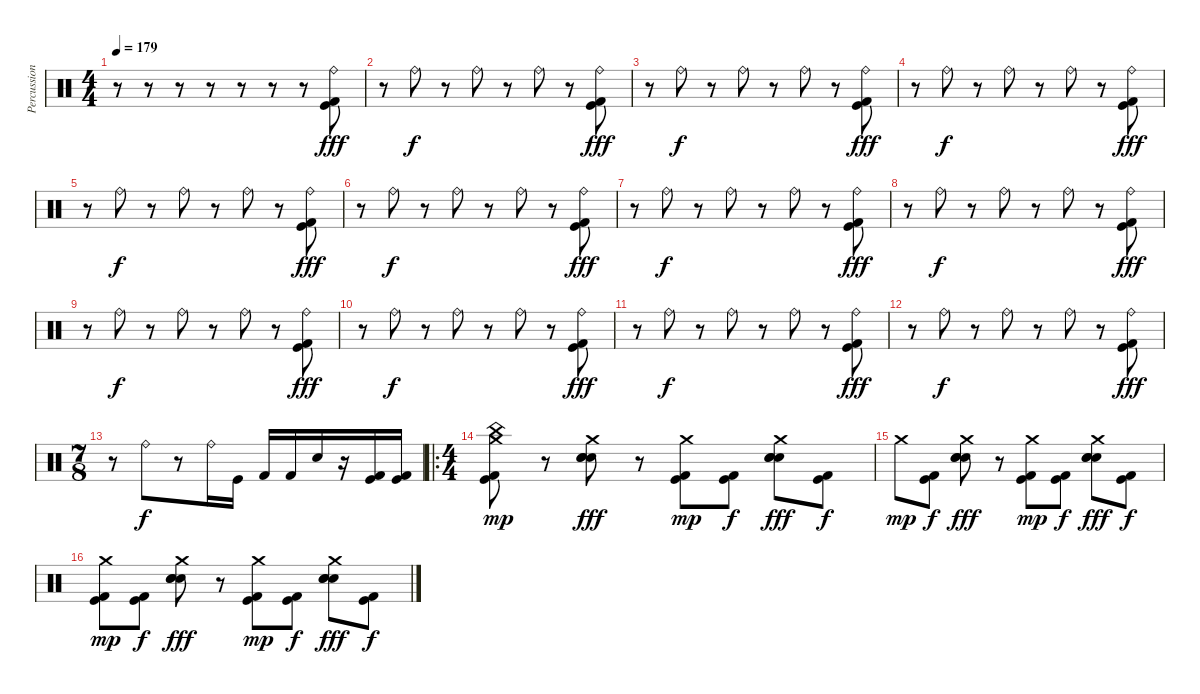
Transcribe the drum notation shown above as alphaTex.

\track ("Percussion" "Percussion") {instrument percussion}
\staff {score}
\articulation defaults
\ts (4 4)
\tempo 179
\clef neutral
\ks c
r.8{dy fff} r.8 r.8 r.8 r.8 r.8 r.8 ("Ride (bell)" "Kick (hit) 2" "Kick (hit)").8 |
r.8 "Ride (bell)".8{dy f} r.8 "Ride (bell)".8 r.8 "Ride (bell)".8 r.8 ("Ride (bell)" "Kick (hit) 2" "Kick (hit)").8{dy fff} |
r.8 "Ride (bell)".8{dy f} r.8 "Ride (bell)".8 r.8 "Ride (bell)".8 r.8 ("Ride (bell)" "Kick (hit) 2" "Kick (hit)").8{dy fff} |
r.8 "Ride (bell)".8{dy f} r.8 "Ride (bell)".8 r.8 "Ride (bell)".8 r.8 ("Ride (bell)" "Kick (hit) 2" "Kick (hit)").8{dy fff} |
r.8 "Ride (bell)".8{dy f} r.8 "Ride (bell)".8 r.8 "Ride (bell)".8 r.8 ("Ride (bell)" "Kick (hit) 2" "Kick (hit)").8{dy fff} |
r.8 "Ride (bell)".8{dy f} r.8 "Ride (bell)".8 r.8 "Ride (bell)".8 r.8 ("Ride (bell)" "Kick (hit) 2" "Kick (hit)").8{dy fff} |
r.8 "Ride (bell)".8{dy f} r.8 "Ride (bell)".8 r.8 "Ride (bell)".8 r.8 ("Ride (bell)" "Kick (hit) 2" "Kick (hit)").8{dy fff} |
r.8 "Ride (bell)".8{dy f} r.8 "Ride (bell)".8 r.8 "Ride (bell)".8 r.8 ("Ride (bell)" "Kick (hit) 2" "Kick (hit)").8{dy fff} |
r.8 "Ride (bell)".8{dy f} r.8 "Ride (bell)".8 r.8 "Ride (bell)".8 r.8 ("Ride (bell)" "Kick (hit) 2" "Kick (hit)").8{dy fff} |
r.8 "Ride (bell)".8{dy f} r.8 "Ride (bell)".8 r.8 "Ride (bell)".8 r.8 ("Ride (bell)" "Kick (hit) 2" "Kick (hit)").8{dy fff} |
r.8 "Ride (bell)".8{dy f} r.8 "Ride (bell)".8 r.8 "Ride (bell)".8 r.8 ("Ride (bell)" "Kick (hit) 2" "Kick (hit)").8{dy fff} |
r.8 "Ride (bell)".8{dy f} r.8 "Ride (bell)".8 r.8 "Ride (bell)".8 r.8 ("Ride (bell)" "Kick (hit) 2" "Kick (hit)").8{dy fff} |
\ts (7 8)
r.8 "Ride (bell)".8{dy f} r.8 "Ride (bell)".16 "Kick (hit)".16 "Kick (hit) 2".16 "Kick (hit) 2".16 "Electric Snare (hit)".16 r.16 ("Kick (hit) 2" "Kick (hit)").16 ("Kick (hit)" "Kick (hit) 2").16 |
\ro
\ts (4 4)
("China (hit)" "Crash medium (hit)" "Kick (hit)" "Kick (hit) 2").8{dy mp} r.8 ("Crash medium (hit)" "Electric Snare (hit)" "Electric Snare (hit)" "Electric Snare (hit)").8{dy fff} r.8 ("Crash medium (hit)" "Kick (hit)" "Kick (hit) 2").8{dy mp} ("Kick (hit)" "Kick (hit) 2").8{dy f} ("Crash medium (hit)" "Electric Snare (hit)" "Electric Snare (hit)" "Electric Snare (hit)").8{dy fff} ("Kick (hit)" "Kick (hit) 2").8{dy f} |
"Crash medium (hit)".8{dy mp} ("Kick (hit)" "Kick (hit) 2").8{dy f} ("Crash medium (hit)" "Electric Snare (hit)" "Electric Snare (hit)" "Electric Snare (hit)").8{dy fff} r.8 ("Crash medium (hit)" "Kick (hit)" "Kick (hit) 2").8{dy mp} ("Kick (hit)" "Kick (hit) 2").8{dy f} ("Crash medium (hit)" "Electric Snare (hit)" "Electric Snare (hit)" "Electric Snare (hit)").8{dy fff} ("Kick (hit)" "Kick (hit) 2").8{dy f} |
("Crash medium (hit)" "Kick (hit)" "Kick (hit) 2").8{dy mp} ("Kick (hit)" "Kick (hit) 2").8{dy f} ("Crash medium (hit)" "Electric Snare (hit)" "Electric Snare (hit)" "Electric Snare (hit)").8{dy fff} r.8 ("Crash medium (hit)" "Kick (hit)" "Kick (hit) 2").8{dy mp} ("Kick (hit)" "Kick (hit) 2").8{dy f} ("Crash medium (hit)" "Electric Snare (hit)" "Electric Snare (hit)" "Electric Snare (hit)").8{dy fff} ("Kick (hit)" "Kick (hit) 2").8{dy f}
